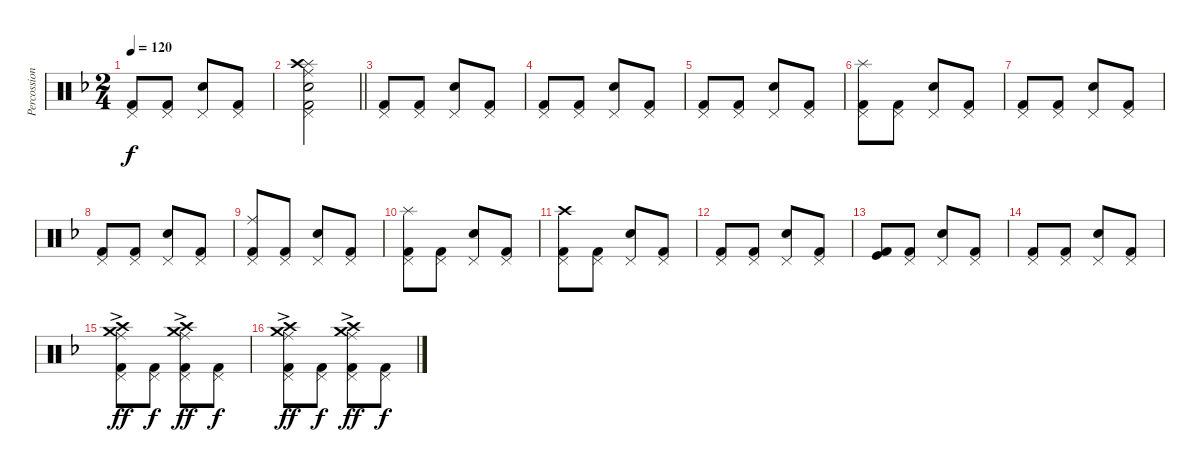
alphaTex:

\track ("Percossion" "Percossion") {instrument percussion}
\staff {score}
\articulation defaults
\ts (2 4)
\tempo 120
\clef neutral
\ks f
("Pedal Hi-Hat (hit)" "Kick (hit) 2").8{dy f} ("Pedal Hi-Hat (hit)" "Kick (hit) 2").8 ("Pedal Hi-Hat (hit)" "Snare (hit) 2").8 ("Pedal Hi-Hat (hit)" "Kick (hit) 2").8 |
\barLineRight lightlight
("Pedal Hi-Hat (hit)" "Splash (hit)" "Ride (middle)" "Crash high (hit)" "Snare (hit) 2" "Kick (hit) 2").2{bd 240} |
("Pedal Hi-Hat (hit)" "Kick (hit) 2").8 ("Pedal Hi-Hat (hit)" "Kick (hit) 2").8 ("Pedal Hi-Hat (hit)" "Snare (hit) 2").8 ("Pedal Hi-Hat (hit)" "Kick (hit) 2").8 |
("Pedal Hi-Hat (hit)" "Kick (hit) 2").8 ("Pedal Hi-Hat (hit)" "Kick (hit) 2").8 ("Pedal Hi-Hat (hit)" "Snare (hit) 2").8 ("Pedal Hi-Hat (hit)" "Kick (hit) 2").8 |
("Pedal Hi-Hat (hit)" "Kick (hit) 2").8 ("Pedal Hi-Hat (hit)" "Kick (hit) 2").8 ("Pedal Hi-Hat (hit)" "Snare (hit) 2").8 ("Pedal Hi-Hat (hit)" "Kick (hit) 2").8 |
("Pedal Hi-Hat (hit)" "Splash (hit)" "Kick (hit) 2").8 ("Pedal Hi-Hat (hit)" "Kick (hit) 2").8 ("Pedal Hi-Hat (hit)" "Snare (hit) 2").8 ("Pedal Hi-Hat (hit)" "Kick (hit) 2").8 |
("Pedal Hi-Hat (hit)" "Kick (hit) 2").8 ("Pedal Hi-Hat (hit)" "Kick (hit) 2").8 ("Pedal Hi-Hat (hit)" "Snare (hit) 2").8 ("Pedal Hi-Hat (hit)" "Kick (hit) 2").8 |
("Pedal Hi-Hat (hit)" "Kick (hit) 2").8 ("Pedal Hi-Hat (hit)" "Kick (hit) 2").8 ("Pedal Hi-Hat (hit)" "Snare (hit) 2").8 ("Pedal Hi-Hat (hit)" "Kick (hit) 2").8 |
("Pedal Hi-Hat (hit)" "Ride (middle)" "Kick (hit) 2").8 ("Pedal Hi-Hat (hit)" "Kick (hit) 2").8 ("Pedal Hi-Hat (hit)" "Snare (hit) 2").8 ("Pedal Hi-Hat (hit)" "Kick (hit) 2").8 |
("Pedal Hi-Hat (hit)" "Splash (hit)" "Kick (hit) 2").8 ("Pedal Hi-Hat (hit)" "Kick (hit) 2").8 ("Pedal Hi-Hat (hit)" "Snare (hit) 2").8 ("Pedal Hi-Hat (hit)" "Kick (hit) 2").8 |
("Pedal Hi-Hat (hit)" "Crash high (hit)" "Kick (hit) 2").8 ("Pedal Hi-Hat (hit)" "Kick (hit) 2").8 ("Pedal Hi-Hat (hit)" "Snare (hit) 2").8 ("Pedal Hi-Hat (hit)" "Kick (hit) 2").8 |
("Pedal Hi-Hat (hit)" "Kick (hit) 2").8 ("Pedal Hi-Hat (hit)" "Kick (hit) 2").8 ("Pedal Hi-Hat (hit)" "Snare (hit) 2").8 ("Pedal Hi-Hat (hit)" "Kick (hit) 2").8 |
("Kick (hit)" "Kick (hit) 2").8 ("Pedal Hi-Hat (hit)" "Kick (hit) 2").8 ("Pedal Hi-Hat (hit)" "Snare (hit) 2").8 ("Pedal Hi-Hat (hit)" "Kick (hit) 2").8 |
("Pedal Hi-Hat (hit)" "Kick (hit) 2").8 ("Pedal Hi-Hat (hit)" "Kick (hit) 2").8 ("Pedal Hi-Hat (hit)" "Snare (hit) 2").8 ("Pedal Hi-Hat (hit)" "Kick (hit) 2").8 |
("Pedal Hi-Hat (hit)"{ac} "Crash medium (hit)"{ac} "Ride (middle)"{ac} "Crash high (hit)"{ac} "Kick (hit) 2"{ac}).8{dy ff} ("Pedal Hi-Hat (hit)" "Kick (hit) 2").8{dy f} ("Pedal Hi-Hat (hit)"{ac} "Crash medium (hit)"{ac} "Ride (middle)"{ac} "Crash high (hit)"{ac} "Kick (hit) 2"{ac}).8{dy ff} ("Pedal Hi-Hat (hit)" "Kick (hit) 2").8{dy f} |
("Pedal Hi-Hat (hit)"{ac} "Crash medium (hit)"{ac} "Ride (middle)"{ac} "Crash high (hit)"{ac} "Kick (hit) 2"{ac}).8{dy ff} ("Pedal Hi-Hat (hit)" "Kick (hit) 2").8{dy f} ("Pedal Hi-Hat (hit)"{ac} "Crash medium (hit)"{ac} "Ride (middle)"{ac} "Crash high (hit)"{ac} "Kick (hit) 2"{ac}).8{dy ff} ("Pedal Hi-Hat (hit)" "Kick (hit) 2").8{dy f}
